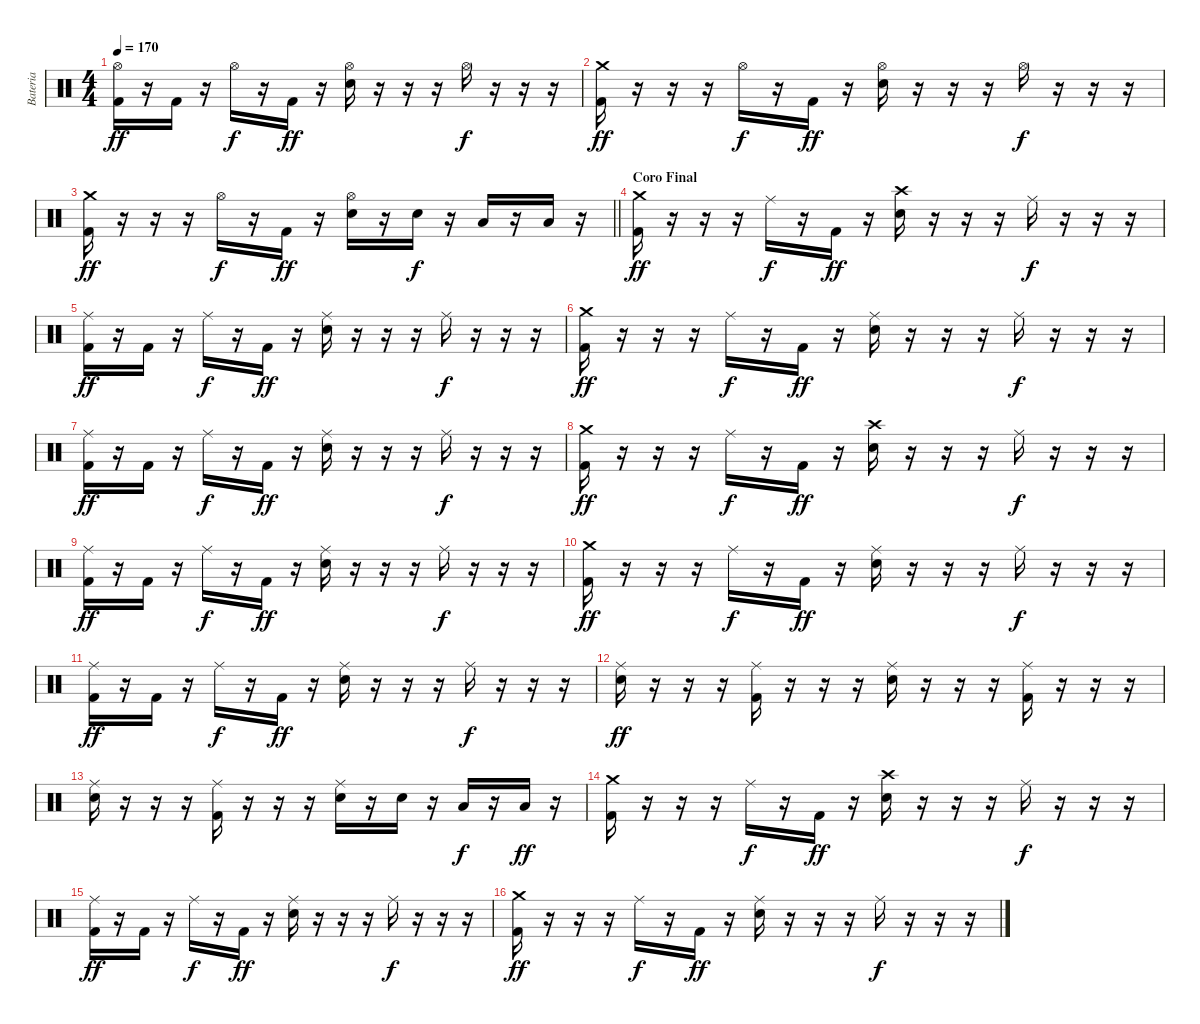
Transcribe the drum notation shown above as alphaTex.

\track ("Bateria" "Bateria") {instrument percussion}
\staff {score}
\articulation defaults
\ts (4 4)
\tempo 170
\clef neutral
\ks c
("Hi-Hat (open)" "Kick (hit) 2").16{dy ff} r.16 "Kick (hit) 2".16 r.16 "Hi-Hat (open)".16{dy f} r.16 "Kick (hit) 2".16{dy ff} r.16 ("Hi-Hat (open)" "Electric Snare (hit)").16 r.16 r.16 r.16 "Hi-Hat (open)".16{dy f} r.16 r.16 r.16 |
("Crash medium (hit)" "Kick (hit) 2").16{dy ff} r.16 r.16 r.16 "Hi-Hat (open)".16{dy f} r.16 "Kick (hit) 2".16{dy ff} r.16 ("Hi-Hat (open)" "Electric Snare (hit)").16 r.16 r.16 r.16 "Hi-Hat (open)".16{dy f} r.16 r.16 r.16 |
\barLineRight lightlight
("Crash medium (hit)" "Kick (hit) 2").16{dy ff} r.16 r.16 r.16 "Hi-Hat (open)".16{dy f} r.16 "Kick (hit) 2".16{dy ff} r.16 ("Hi-Hat (open)" "Electric Snare (hit)").16 r.16 "Electric Snare (hit)".16{dy f} r.16 "Low Tom (hit)".16 r.16 "Low Tom (hit)".16 r.16 |
\section ("" "Coro Final")
("Crash medium (hit)" "Kick (hit) 2").16{dy ff} r.16 r.16 r.16 "Ride (middle)".16{dy f} r.16 "Kick (hit) 2".16{dy ff} r.16 ("Crash high (hit)" "Electric Snare (hit)").16 r.16 r.16 r.16 "Ride (middle)".16{dy f} r.16 r.16 r.16 |
("Ride (middle)" "Kick (hit) 2").16{dy ff} r.16 "Kick (hit) 2".16 r.16 "Ride (middle)".16{dy f} r.16 "Kick (hit) 2".16{dy ff} r.16 ("Ride (middle)" "Electric Snare (hit)").16 r.16 r.16 r.16 "Ride (middle)".16{dy f} r.16 r.16 r.16 |
("Crash medium (hit)" "Kick (hit) 2").16{dy ff} r.16 r.16 r.16 "Ride (middle)".16{dy f} r.16 "Kick (hit) 2".16{dy ff} r.16 ("Ride (middle)" "Electric Snare (hit)").16 r.16 r.16 r.16 "Ride (middle)".16{dy f} r.16 r.16 r.16 |
("Ride (middle)" "Kick (hit) 2").16{dy ff} r.16 "Kick (hit) 2".16 r.16 "Ride (middle)".16{dy f} r.16 "Kick (hit) 2".16{dy ff} r.16 ("Ride (middle)" "Electric Snare (hit)").16 r.16 r.16 r.16 "Ride (middle)".16{dy f} r.16 r.16 r.16 |
("Crash medium (hit)" "Kick (hit) 2").16{dy ff} r.16 r.16 r.16 "Ride (middle)".16{dy f} r.16 "Kick (hit) 2".16{dy ff} r.16 ("Crash high (hit)" "Electric Snare (hit)").16 r.16 r.16 r.16 "Ride (middle)".16{dy f} r.16 r.16 r.16 |
("Ride (middle)" "Kick (hit) 2").16{dy ff} r.16 "Kick (hit) 2".16 r.16 "Ride (middle)".16{dy f} r.16 "Kick (hit) 2".16{dy ff} r.16 ("Ride (middle)" "Electric Snare (hit)").16 r.16 r.16 r.16 "Ride (middle)".16{dy f} r.16 r.16 r.16 |
("Crash medium (hit)" "Kick (hit) 2").16{dy ff} r.16 r.16 r.16 "Ride (middle)".16{dy f} r.16 "Kick (hit) 2".16{dy ff} r.16 ("Ride (middle)" "Electric Snare (hit)").16 r.16 r.16 r.16 "Ride (middle)".16{dy f} r.16 r.16 r.16 |
("Ride (middle)" "Kick (hit) 2").16{dy ff} r.16 "Kick (hit) 2".16 r.16 "Ride (middle)".16{dy f} r.16 "Kick (hit) 2".16{dy ff} r.16 ("Ride (middle)" "Electric Snare (hit)").16 r.16 r.16 r.16 "Ride (middle)".16{dy f} r.16 r.16 r.16 |
("Ride (middle)" "Electric Snare (hit)").16{dy ff} r.16 r.16 r.16 ("Ride (middle)" "Kick (hit) 2").16 r.16 r.16 r.16 ("Ride (middle)" "Electric Snare (hit)").16 r.16 r.16 r.16 ("Ride (middle)" "Kick (hit) 2").16 r.16 r.16 r.16 |
("Ride (middle)" "Electric Snare (hit)").16 r.16 r.16 r.16 ("Ride (middle)" "Kick (hit) 2").16 r.16 r.16 r.16 ("Ride (middle)" "Electric Snare (hit)").16 r.16 "Electric Snare (hit)".16 r.16 "Low Tom (hit)".16{dy f} r.16 "Low Tom (hit)".16{dy ff} r.16 |
("Crash medium (hit)" "Kick (hit) 2").16 r.16 r.16 r.16 "Ride (middle)".16{dy f} r.16 "Kick (hit) 2".16{dy ff} r.16 ("Crash high (hit)" "Electric Snare (hit)").16 r.16 r.16 r.16 "Ride (middle)".16{dy f} r.16 r.16 r.16 |
("Ride (middle)" "Kick (hit) 2").16{dy ff} r.16 "Kick (hit) 2".16 r.16 "Ride (middle)".16{dy f} r.16 "Kick (hit) 2".16{dy ff} r.16 ("Ride (middle)" "Electric Snare (hit)").16 r.16 r.16 r.16 "Ride (middle)".16{dy f} r.16 r.16 r.16 |
("Crash medium (hit)" "Kick (hit) 2").16{dy ff} r.16 r.16 r.16 "Ride (middle)".16{dy f} r.16 "Kick (hit) 2".16{dy ff} r.16 ("Ride (middle)" "Electric Snare (hit)").16 r.16 r.16 r.16 "Ride (middle)".16{dy f} r.16 r.16 r.16
